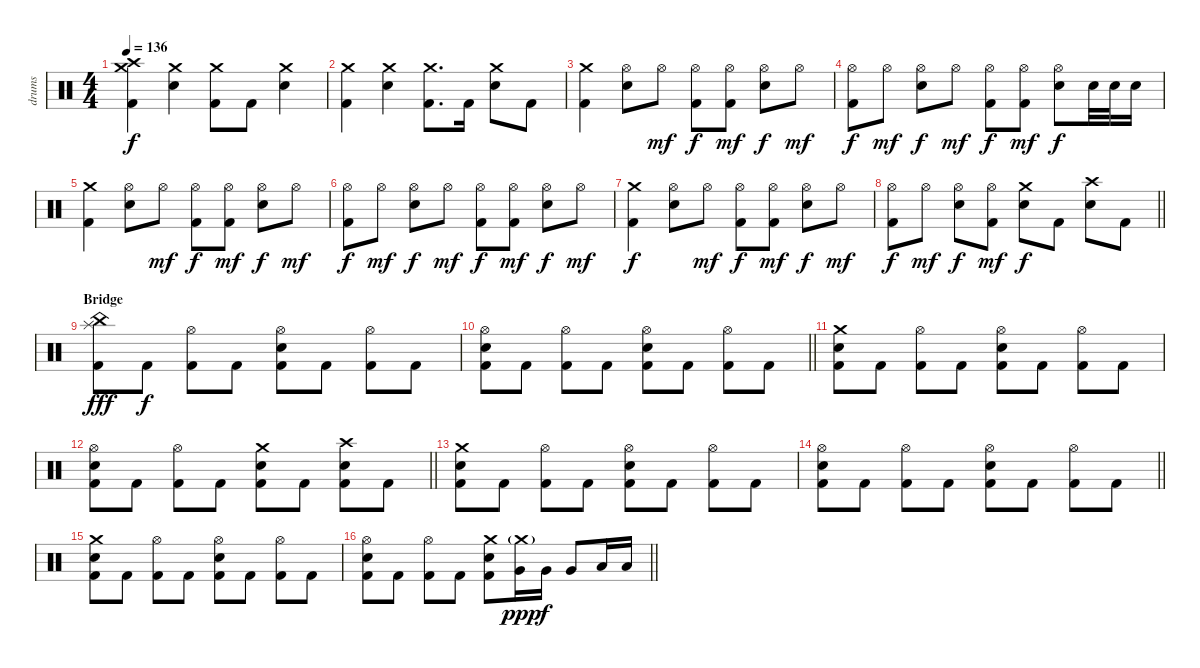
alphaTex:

\track ("drums" "drums") {instrument percussion}
\staff {score}
\articulation defaults
\ts (4 4)
\tempo 136
\clef neutral
\ks c
("Crash medium (hit)" "Crash high (hit)" "Kick (hit) 2").4{dy f} ("Crash medium (hit)" "Electric Snare (hit)").4 ("Crash medium (hit)" "Kick (hit) 2").8 "Kick (hit) 2".8 ("Crash medium (hit)" "Electric Snare (hit)").4 |
("Crash medium (hit)" "Kick (hit) 2").4 ("Crash medium (hit)" "Electric Snare (hit)").4 ("Crash medium (hit)" "Kick (hit) 2").8{d} "Kick (hit) 2".16 ("Crash medium (hit)" "Electric Snare (hit)").8 "Kick (hit) 2".8 |
("Crash medium (hit)" "Kick (hit) 2").4 ("Hi-Hat (open)" "Electric Snare (hit)").8 "Hi-Hat (open)".8{dy mf} ("Hi-Hat (open)" "Kick (hit) 2").8{dy f} ("Hi-Hat (open)" "Kick (hit) 2").8{dy mf} ("Hi-Hat (open)" "Electric Snare (hit)").8{dy f} "Hi-Hat (open)".8{dy mf} |
("Hi-Hat (open)" "Kick (hit) 2").8{dy f} "Hi-Hat (open)".8{dy mf} ("Hi-Hat (open)" "Electric Snare (hit)").8{dy f} "Hi-Hat (open)".8{dy mf} ("Hi-Hat (open)" "Kick (hit) 2").8{dy f} ("Hi-Hat (open)" "Kick (hit) 2").8{dy mf} ("Hi-Hat (open)" "Electric Snare (hit)").8{dy f} "Electric Snare (hit)".32 "Electric Snare (hit)".32 "Electric Snare (hit)".16 |
("Crash medium (hit)" "Kick (hit) 2").4 ("Hi-Hat (open)" "Electric Snare (hit)").8 "Hi-Hat (open)".8{dy mf} ("Hi-Hat (open)" "Kick (hit) 2").8{dy f} ("Hi-Hat (open)" "Kick (hit) 2").8{dy mf} ("Hi-Hat (open)" "Electric Snare (hit)").8{dy f} "Hi-Hat (open)".8{dy mf} |
("Hi-Hat (open)" "Kick (hit) 2").8{dy f} "Hi-Hat (open)".8{dy mf} ("Hi-Hat (open)" "Electric Snare (hit)").8{dy f} "Hi-Hat (open)".8{dy mf} ("Hi-Hat (open)" "Kick (hit) 2").8{dy f} ("Hi-Hat (open)" "Kick (hit) 2").8{dy mf} ("Hi-Hat (open)" "Electric Snare (hit)").8{dy f} "Hi-Hat (open)".8{dy mf} |
("Crash medium (hit)" "Kick (hit) 2").4{dy f} ("Hi-Hat (open)" "Electric Snare (hit)").8 "Hi-Hat (open)".8{dy mf} ("Hi-Hat (open)" "Kick (hit) 2").8{dy f} ("Hi-Hat (open)" "Kick (hit) 2").8{dy mf} ("Hi-Hat (open)" "Electric Snare (hit)").8{dy f} "Hi-Hat (open)".8{dy mf} |
\barLineRight lightlight
("Hi-Hat (open)" "Kick (hit) 2").8{dy f} "Hi-Hat (open)".8{dy mf} ("Hi-Hat (open)" "Electric Snare (hit)").8{dy f} ("Hi-Hat (open)" "Kick (hit) 2").8{dy mf} ("Crash medium (hit)" "Electric Snare (hit)").8{dy f} "Kick (hit) 2".8 ("Crash high (hit)" "Electric Snare (hit)").8 "Kick (hit) 2".8 |
\section ("" "Bridge")
("China (hit)" "Splash (hit)" "Kick (hit) 2").8{dy fff} "Kick (hit) 2".8{dy f} ("Hi-Hat (open)" "Kick (hit) 2").8 "Kick (hit) 2".8 ("Hi-Hat (open)" "Electric Snare (hit)" "Kick (hit) 2").8 "Kick (hit) 2".8 ("Hi-Hat (open)" "Kick (hit) 2").8 "Kick (hit) 2".8 |
\barLineRight lightlight
("Hi-Hat (open)" "Electric Snare (hit)" "Kick (hit) 2").8 "Kick (hit) 2".8 ("Hi-Hat (open)" "Kick (hit) 2").8 "Kick (hit) 2".8 ("Hi-Hat (open)" "Electric Snare (hit)" "Kick (hit) 2").8 "Kick (hit) 2".8 ("Hi-Hat (open)" "Kick (hit) 2").8 "Kick (hit) 2".8 |
("Crash medium (hit)" "Electric Snare (hit)" "Kick (hit) 2").8 "Kick (hit) 2".8 ("Hi-Hat (open)" "Kick (hit) 2").8 "Kick (hit) 2".8 ("Hi-Hat (open)" "Electric Snare (hit)" "Kick (hit) 2").8 "Kick (hit) 2".8 ("Hi-Hat (open)" "Kick (hit) 2").8 "Kick (hit) 2".8 |
\barLineRight lightlight
("Hi-Hat (open)" "Electric Snare (hit)" "Kick (hit) 2").8 "Kick (hit) 2".8 ("Hi-Hat (open)" "Kick (hit) 2").8 "Kick (hit) 2".8 ("Crash medium (hit)" "Electric Snare (hit)" "Kick (hit) 2").8 "Kick (hit) 2".8 ("Crash high (hit)" "Electric Snare (hit)" "Kick (hit) 2").8 "Kick (hit) 2".8 |
("Crash medium (hit)" "Electric Snare (hit)" "Kick (hit) 2").8 "Kick (hit) 2".8 ("Hi-Hat (open)" "Kick (hit) 2").8 "Kick (hit) 2".8 ("Hi-Hat (open)" "Electric Snare (hit)" "Kick (hit) 2").8 "Kick (hit) 2".8 ("Hi-Hat (open)" "Kick (hit) 2").8 "Kick (hit) 2".8 |
\barLineRight lightlight
("Hi-Hat (open)" "Electric Snare (hit)" "Kick (hit) 2").8 "Kick (hit) 2".8 ("Hi-Hat (open)" "Kick (hit) 2").8 "Kick (hit) 2".8 ("Hi-Hat (open)" "Electric Snare (hit)" "Kick (hit) 2").8 "Kick (hit) 2".8 ("Hi-Hat (open)" "Kick (hit) 2").8 "Kick (hit) 2".8 |
("Crash medium (hit)" "Electric Snare (hit)" "Kick (hit) 2").8 "Kick (hit) 2".8 ("Hi-Hat (open)" "Kick (hit) 2").8 "Kick (hit) 2".8 ("Hi-Hat (open)" "Electric Snare (hit)" "Kick (hit) 2").8 "Kick (hit) 2".8 ("Hi-Hat (open)" "Kick (hit) 2").8 "Kick (hit) 2".8 |
\barLineRight lightlight
("Hi-Hat (open)" "Electric Snare (hit)" "Kick (hit) 2").8 "Kick (hit) 2".8 ("Hi-Hat (open)" "Kick (hit) 2").8 "Kick (hit) 2".8 ("Crash medium (hit)" "Electric Snare (hit)" "Kick (hit) 2").8 ("Crash medium (hit)"{g} "Very Low Tom (hit)").16{dy ppp} "Very Low Tom (hit)".16{dy f} "Very Low Tom (hit)".8 "Low Floor Tom (hit)".16 "Low Floor Tom (hit)".16
